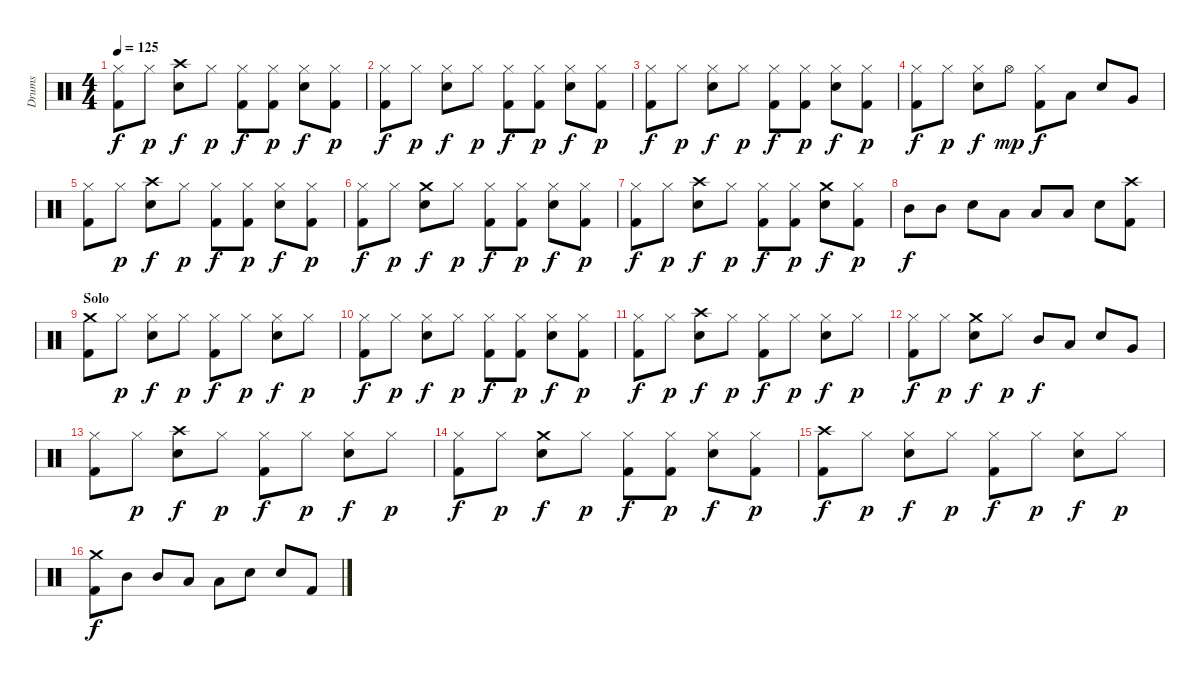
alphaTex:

\track ("Drums" "Drums") {instrument percussion}
\staff {score}
\articulation defaults
\ts (4 4)
\tempo 125
\clef neutral
\ks c
("Hi-Hat (closed)" "Kick (hit) 2").8{dy f} "Hi-Hat (closed)".8{dy p} ("Crash high (hit)" "Snare (hit) 2").8{dy f} "Hi-Hat (closed)".8{dy p} ("Hi-Hat (closed)" "Kick (hit) 2").8{dy f} ("Hi-Hat (closed)" "Kick (hit) 2").8{dy p} ("Hi-Hat (closed)" "Snare (hit) 2").8{dy f} ("Hi-Hat (closed)" "Kick (hit) 2").8{dy p} |
("Hi-Hat (closed)" "Kick (hit) 2").8{dy f} "Hi-Hat (closed)".8{dy p} ("Hi-Hat (closed)" "Snare (hit) 2").8{dy f} "Hi-Hat (closed)".8{dy p} ("Hi-Hat (closed)" "Kick (hit) 2").8{dy f} ("Hi-Hat (closed)" "Kick (hit) 2").8{dy p} ("Hi-Hat (closed)" "Snare (hit) 2").8{dy f} ("Hi-Hat (closed)" "Kick (hit) 2").8{dy p} |
("Hi-Hat (closed)" "Kick (hit) 2").8{dy f} "Hi-Hat (closed)".8{dy p} ("Hi-Hat (closed)" "Snare (hit) 2").8{dy f} "Hi-Hat (closed)".8{dy p} ("Hi-Hat (closed)" "Kick (hit) 2").8{dy f} ("Hi-Hat (closed)" "Kick (hit) 2").8{dy p} ("Hi-Hat (closed)" "Snare (hit) 2").8{dy f} ("Hi-Hat (closed)" "Kick (hit) 2").8{dy p} |
("Hi-Hat (closed)" "Kick (hit) 2").8{dy f} "Hi-Hat (closed)".8{dy p} ("Hi-Hat (closed)" "Snare (hit) 2").8{dy f} "Hi-Hat (open)".8{dy mp} ("Hi-Hat (closed)" "Kick (hit) 2").8{dy f} "Low Tom (hit)".8 "Snare (hit) 2".8 "Very Low Tom (hit)".8 |
("Hi-Hat (closed)" "Kick (hit) 2").8 "Hi-Hat (closed)".8{dy p} ("Crash high (hit)" "Snare (hit) 2").8{dy f} "Hi-Hat (closed)".8{dy p} ("Hi-Hat (closed)" "Kick (hit) 2").8{dy f} ("Hi-Hat (closed)" "Kick (hit) 2").8{dy p} ("Hi-Hat (closed)" "Snare (hit) 2").8{dy f} ("Hi-Hat (closed)" "Kick (hit) 2").8{dy p} |
("Hi-Hat (closed)" "Kick (hit) 2").8{dy f} "Hi-Hat (closed)".8{dy p} ("Crash medium (hit)" "Snare (hit) 2").8{dy f} "Hi-Hat (closed)".8{dy p} ("Hi-Hat (closed)" "Kick (hit) 2").8{dy f} ("Hi-Hat (closed)" "Kick (hit) 2").8{dy p} ("Hi-Hat (closed)" "Snare (hit) 2").8{dy f} ("Hi-Hat (closed)" "Kick (hit) 2").8{dy p} |
("Hi-Hat (closed)" "Kick (hit) 2").8{dy f} "Hi-Hat (closed)".8{dy p} ("Crash high (hit)" "Snare (hit) 2").8{dy f} "Hi-Hat (closed)".8{dy p} ("Hi-Hat (closed)" "Kick (hit) 2").8{dy f} ("Hi-Hat (closed)" "Kick (hit) 2").8{dy p} ("Crash medium (hit)" "Snare (hit) 2").8{dy f} ("Hi-Hat (closed)" "Kick (hit) 2").8{dy p} |
"Mid Tom (hit)".8{dy f} "Mid Tom (hit)".8 "Snare (hit) 2".8 "Low Tom (hit)".8 "Low Tom (hit)".8 "Low Tom (hit)".8 "Snare (hit) 2".8 ("Crash high (hit)" "Kick (hit) 2").8 |
\section ("" "Solo")
("Crash medium (hit)" "Kick (hit) 2").8 "Hi-Hat (closed)".8{dy p} ("Hi-Hat (closed)" "Snare (hit) 2").8{dy f} "Hi-Hat (closed)".8{dy p} ("Hi-Hat (closed)" "Kick (hit) 2").8{dy f} "Hi-Hat (closed)".8{dy p} ("Hi-Hat (closed)" "Snare (hit) 2").8{dy f} "Hi-Hat (closed)".8{dy p} |
("Hi-Hat (closed)" "Kick (hit) 2").8{dy f} "Hi-Hat (closed)".8{dy p} ("Hi-Hat (closed)" "Snare (hit) 2").8{dy f} "Hi-Hat (closed)".8{dy p} ("Hi-Hat (closed)" "Kick (hit) 2").8{dy f} ("Hi-Hat (closed)" "Kick (hit) 2").8{dy p} ("Hi-Hat (closed)" "Snare (hit) 2").8{dy f} ("Hi-Hat (closed)" "Kick (hit) 2").8{dy p} |
("Hi-Hat (closed)" "Kick (hit) 2").8{dy f} "Hi-Hat (closed)".8{dy p} ("Crash high (hit)" "Snare (hit) 2").8{dy f} "Hi-Hat (closed)".8{dy p} ("Hi-Hat (closed)" "Kick (hit) 2").8{dy f} "Hi-Hat (closed)".8{dy p} ("Hi-Hat (closed)" "Snare (hit) 2").8{dy f} "Hi-Hat (closed)".8{dy p} |
("Hi-Hat (closed)" "Kick (hit) 2").8{dy f} "Hi-Hat (closed)".8{dy p} ("Crash medium (hit)" "Snare (hit) 2").8{dy f} "Hi-Hat (closed)".8{dy p} "Mid Tom (hit)".8{dy f} "Low Tom (hit)".8 "Snare (hit) 2".8 "Very Low Tom (hit)".8 |
("Hi-Hat (closed)" "Kick (hit) 2").8 "Hi-Hat (closed)".8{dy p} ("Crash high (hit)" "Snare (hit) 2").8{dy f} "Hi-Hat (closed)".8{dy p} ("Hi-Hat (closed)" "Kick (hit) 2").8{dy f} "Hi-Hat (closed)".8{dy p} ("Hi-Hat (closed)" "Snare (hit) 2").8{dy f} "Hi-Hat (closed)".8{dy p} |
("Hi-Hat (closed)" "Kick (hit) 2").8{dy f} "Hi-Hat (closed)".8{dy p} ("Crash medium (hit)" "Snare (hit) 2").8{dy f} "Hi-Hat (closed)".8{dy p} ("Hi-Hat (closed)" "Kick (hit) 2").8{dy f} ("Hi-Hat (closed)" "Kick (hit) 2").8{dy p} ("Hi-Hat (closed)" "Snare (hit) 2").8{dy f} ("Hi-Hat (closed)" "Kick (hit) 2").8{dy p} |
("Crash high (hit)" "Kick (hit) 2").8{dy f} "Hi-Hat (closed)".8{dy p} ("Hi-Hat (closed)" "Snare (hit) 2").8{dy f} "Hi-Hat (closed)".8{dy p} ("Hi-Hat (closed)" "Kick (hit) 2").8{dy f} "Hi-Hat (closed)".8{dy p} ("Hi-Hat (closed)" "Snare (hit) 2").8{dy f} "Hi-Hat (closed)".8{dy p} |
("Crash medium (hit)" "Kick (hit) 2").8{dy f} "Mid Tom (hit)".8 "Mid Tom (hit)".8 "Low Tom (hit)".8 "Low Tom (hit)".8 "Snare (hit) 2".8 "Snare (hit) 2".8 "Kick (hit) 2".8
